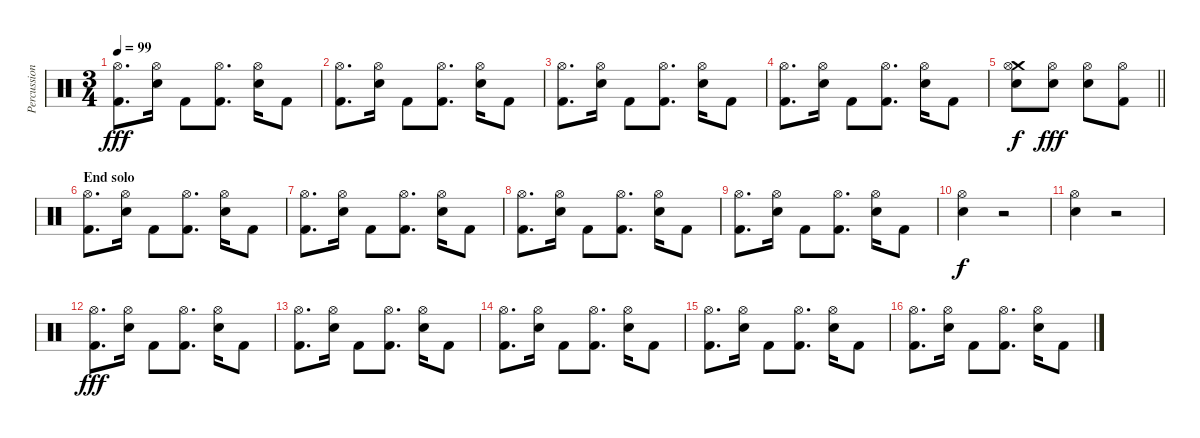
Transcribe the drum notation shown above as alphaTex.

\track ("Percussion" "Percussion") {instrument percussion}
\staff {score}
\articulation defaults
\ts (3 4)
\tempo 99
\clef neutral
\ks c
("Hi-Hat (open)" "Kick (hit) 2").8{d dy fff} ("Hi-Hat (open)" "Electric Snare (hit)").16 "Kick (hit) 2".8 ("Hi-Hat (open)" "Kick (hit) 2").8{d} ("Hi-Hat (open)" "Electric Snare (hit)").16 "Kick (hit) 2".8 |
("Hi-Hat (open)" "Kick (hit) 2").8{d} ("Hi-Hat (open)" "Electric Snare (hit)").16 "Kick (hit) 2".8 ("Hi-Hat (open)" "Kick (hit) 2").8{d} ("Hi-Hat (open)" "Electric Snare (hit)").16 "Kick (hit) 2".8 |
("Hi-Hat (open)" "Kick (hit) 2").8{d} ("Hi-Hat (open)" "Electric Snare (hit)").16 "Kick (hit) 2".8 ("Hi-Hat (open)" "Kick (hit) 2").8{d} ("Hi-Hat (open)" "Electric Snare (hit)").16 "Kick (hit) 2".8 |
("Hi-Hat (open)" "Kick (hit) 2").8{d} ("Hi-Hat (open)" "Electric Snare (hit)").16 "Kick (hit) 2".8 ("Hi-Hat (open)" "Kick (hit) 2").8{d} ("Hi-Hat (open)" "Electric Snare (hit)").16 "Kick (hit) 2".8 |
\barLineRight lightlight
("Crash medium (hit)" "Hi-Hat (open)" "Electric Snare (hit)").8{dy f} ("Hi-Hat (open)" "Electric Snare (hit)").8{dy fff} ("Hi-Hat (open)" "Electric Snare (hit)").8 ("Hi-Hat (open)" "Kick (hit) 2").8 |
\section ("" "End solo")
("Hi-Hat (open)" "Kick (hit) 2").8{d} ("Hi-Hat (open)" "Electric Snare (hit)").16 "Kick (hit) 2".8 ("Hi-Hat (open)" "Kick (hit) 2").8{d} ("Hi-Hat (open)" "Electric Snare (hit)").16 "Kick (hit) 2".8 |
("Hi-Hat (open)" "Kick (hit) 2").8{d} ("Hi-Hat (open)" "Electric Snare (hit)").16 "Kick (hit) 2".8 ("Hi-Hat (open)" "Kick (hit) 2").8{d} ("Hi-Hat (open)" "Electric Snare (hit)").16 "Kick (hit) 2".8 |
("Hi-Hat (open)" "Kick (hit) 2").8{d} ("Hi-Hat (open)" "Electric Snare (hit)").16 "Kick (hit) 2".8 ("Hi-Hat (open)" "Kick (hit) 2").8{d} ("Hi-Hat (open)" "Electric Snare (hit)").16 "Kick (hit) 2".8 |
("Hi-Hat (open)" "Kick (hit) 2").8{d} ("Hi-Hat (open)" "Electric Snare (hit)").16 "Kick (hit) 2".8 ("Hi-Hat (open)" "Kick (hit) 2").8{d} ("Hi-Hat (open)" "Electric Snare (hit)").16 "Kick (hit) 2".8 |
("Hi-Hat (open)" "Electric Snare (hit)").4{dy f} r.2 |
("Hi-Hat (open)" "Electric Snare (hit)").4 r.2 |
("Hi-Hat (open)" "Kick (hit) 2").8{d dy fff} ("Hi-Hat (open)" "Electric Snare (hit)").16 "Kick (hit) 2".8 ("Hi-Hat (open)" "Kick (hit) 2").8{d} ("Hi-Hat (open)" "Electric Snare (hit)").16 "Kick (hit) 2".8 |
("Hi-Hat (open)" "Kick (hit) 2").8{d} ("Hi-Hat (open)" "Electric Snare (hit)").16 "Kick (hit) 2".8 ("Hi-Hat (open)" "Kick (hit) 2").8{d} ("Hi-Hat (open)" "Electric Snare (hit)").16 "Kick (hit) 2".8 |
("Hi-Hat (open)" "Kick (hit) 2").8{d} ("Hi-Hat (open)" "Electric Snare (hit)").16 "Kick (hit) 2".8 ("Hi-Hat (open)" "Kick (hit) 2").8{d} ("Hi-Hat (open)" "Electric Snare (hit)").16 "Kick (hit) 2".8 |
("Hi-Hat (open)" "Kick (hit) 2").8{d} ("Hi-Hat (open)" "Electric Snare (hit)").16 "Kick (hit) 2".8 ("Hi-Hat (open)" "Kick (hit) 2").8{d} ("Hi-Hat (open)" "Electric Snare (hit)").16 "Kick (hit) 2".8 |
("Hi-Hat (open)" "Kick (hit) 2").8{d} ("Hi-Hat (open)" "Electric Snare (hit)").16 "Kick (hit) 2".8 ("Hi-Hat (open)" "Kick (hit) 2").8{d} ("Hi-Hat (open)" "Electric Snare (hit)").16 "Kick (hit) 2".8
